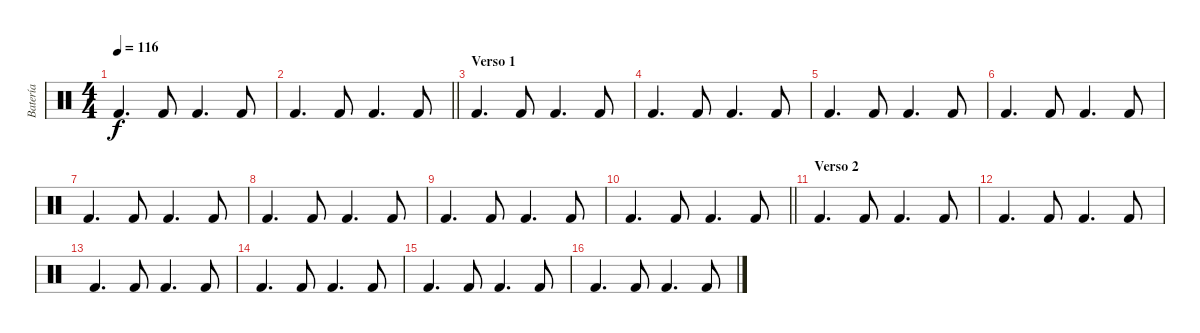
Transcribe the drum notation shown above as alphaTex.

\track ("Batería" "Batería") {instrument percussion}
\staff {score}
\articulation defaults
\ts (4 4)
\tempo 116
\clef neutral
\ks c "Kick (hit) 2".4{d dy f} "Kick (hit) 2".8 "Kick (hit) 2".4{d} "Kick (hit) 2".8
|
\barLineRight lightlight "Kick (hit) 2".4{d} "Kick (hit) 2".8 "Kick (hit) 2".4{d} "Kick (hit) 2".8
|
\section ("" "Verso 1")
"Kick (hit) 2".4{d} "Kick (hit) 2".8 "Kick (hit) 2".4{d} "Kick (hit) 2".8 |
"Kick (hit) 2".4{d} "Kick (hit) 2".8 "Kick (hit) 2".4{d} "Kick (hit) 2".8 |
"Kick (hit) 2".4{d} "Kick (hit) 2".8 "Kick (hit) 2".4{d} "Kick (hit) 2".8 |
"Kick (hit) 2".4{d} "Kick (hit) 2".8 "Kick (hit) 2".4{d} "Kick (hit) 2".8 |
"Kick (hit) 2".4{d} "Kick (hit) 2".8 "Kick (hit) 2".4{d} "Kick (hit) 2".8 |
"Kick (hit) 2".4{d} "Kick (hit) 2".8 "Kick (hit) 2".4{d} "Kick (hit) 2".8 |
"Kick (hit) 2".4{d} "Kick (hit) 2".8 "Kick (hit) 2".4{d} "Kick (hit) 2".8 |
\barLineRight lightlight "Kick (hit) 2".4{d} "Kick (hit) 2".8 "Kick (hit) 2".4{d} "Kick (hit) 2".8
|
\section ("" "Verso 2")
"Kick (hit) 2".4{d} "Kick (hit) 2".8 "Kick (hit) 2".4{d} "Kick (hit) 2".8 |
"Kick (hit) 2".4{d} "Kick (hit) 2".8 "Kick (hit) 2".4{d} "Kick (hit) 2".8 |
"Kick (hit) 2".4{d} "Kick (hit) 2".8 "Kick (hit) 2".4{d} "Kick (hit) 2".8 |
"Kick (hit) 2".4{d} "Kick (hit) 2".8 "Kick (hit) 2".4{d} "Kick (hit) 2".8 |
"Kick (hit) 2".4{d} "Kick (hit) 2".8 "Kick (hit) 2".4{d} "Kick (hit) 2".8 |
"Kick (hit) 2".4{d} "Kick (hit) 2".8 "Kick (hit) 2".4{d} "Kick (hit) 2".8
